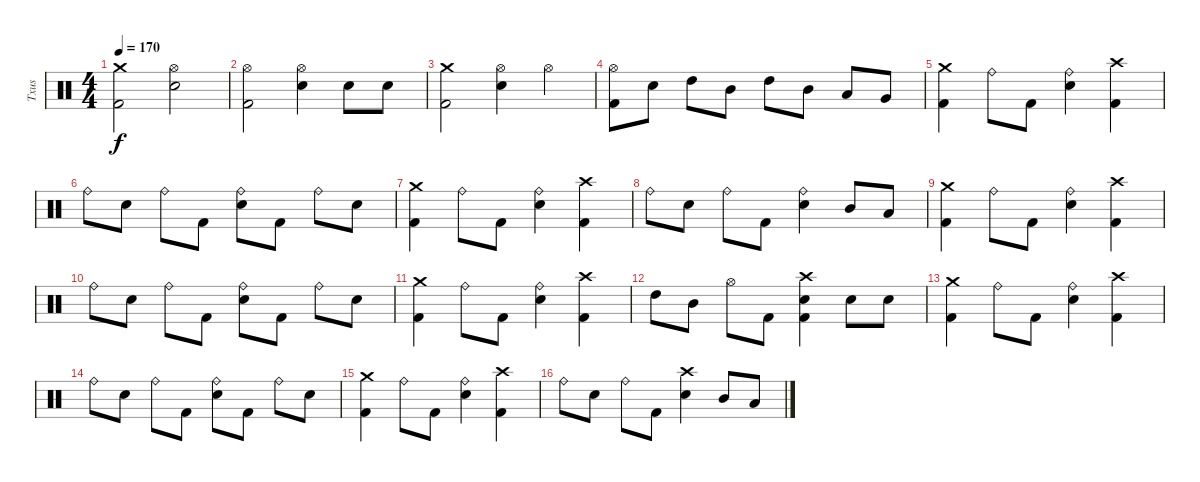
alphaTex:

\track ("Txus" "Txus") {instrument percussion}
\staff {score}
\articulation defaults
\ts (4 4)
\tempo 170
\clef neutral
\ks c
("Crash medium (hit)" "Kick (hit) 2").2{dy f} ("Hi-Hat (open)" "Snare (hit) 2").2 |
("Hi-Hat (open)" "Kick (hit) 2").2 ("Hi-Hat (open)" "Snare (hit) 2").4 "Snare (hit) 2".8 "Snare (hit) 2".8 |
("Crash medium (hit)" "Kick (hit) 2").2 ("Hi-Hat (open)" "Snare (hit) 2").4 "Hi-Hat (open)".4 |
("Hi-Hat (open)" "Kick (hit) 2").8 "Snare (hit) 2".8 "High Tom (hit)".8 "Mid Tom (hit)".8 "High Tom (hit)".8 "Mid Tom (hit)".8 "Low Tom (hit)".8 "Very Low Tom (hit)".8 |
("Crash medium (hit)" "Kick (hit) 2").4 "Ride (bell)".8 "Kick (hit) 2".8 ("Ride (bell)" "Snare (hit) 2").4 ("Crash high (hit)" "Kick (hit) 2").4 |
"Ride (bell)".8 "Snare (hit) 2".8 "Ride (bell)".8 "Kick (hit) 2".8 ("Ride (bell)" "Snare (hit) 2").8 "Kick (hit) 2".8 "Ride (bell)".8 "Snare (hit) 2".8 |
("Crash medium (hit)" "Kick (hit) 2").4 "Ride (bell)".8 "Kick (hit) 2".8 ("Ride (bell)" "Snare (hit) 2").4 ("Crash high (hit)" "Kick (hit) 2").4 |
"Ride (bell)".8 "Snare (hit) 2".8 "Ride (bell)".8 "Kick (hit) 2".8 ("Ride (bell)" "Snare (hit) 2").4 "Mid Tom (hit)".8 "Low Tom (hit)".8 |
("Crash medium (hit)" "Kick (hit) 2").4 "Ride (bell)".8 "Kick (hit) 2".8 ("Ride (bell)" "Snare (hit) 2").4 ("Crash high (hit)" "Kick (hit) 2").4 |
"Ride (bell)".8 "Snare (hit) 2".8 "Ride (bell)".8 "Kick (hit) 2".8 ("Ride (bell)" "Snare (hit) 2").8 "Kick (hit) 2".8 "Ride (bell)".8 "Snare (hit) 2".8 |
("Crash medium (hit)" "Kick (hit) 2").4 "Ride (bell)".8 "Kick (hit) 2".8 ("Ride (bell)" "Snare (hit) 2").4 ("Crash high (hit)" "Kick (hit) 2").4 |
"High Tom (hit)".8 "Mid Tom (hit)".8 "Hi-Hat (open)".8 "Kick (hit) 2".8 ("Crash high (hit)" "Snare (hit) 2" "Kick (hit) 2").4 "Snare (hit) 2".8 "Snare (hit) 2".8 |
("Crash medium (hit)" "Kick (hit) 2").4 "Ride (bell)".8 "Kick (hit) 2".8 ("Ride (bell)" "Snare (hit) 2").4 ("Crash high (hit)" "Kick (hit) 2").4 |
"Ride (bell)".8 "Snare (hit) 2".8 "Ride (bell)".8 "Kick (hit) 2".8 ("Ride (bell)" "Snare (hit) 2").8 "Kick (hit) 2".8 "Ride (bell)".8 "Snare (hit) 2".8 |
("Crash medium (hit)" "Kick (hit) 2").4 "Ride (bell)".8 "Kick (hit) 2".8 ("Ride (bell)" "Snare (hit) 2").4 ("Crash high (hit)" "Kick (hit) 2").4 |
"Ride (bell)".8 "Snare (hit) 2".8 "Ride (bell)".8 "Kick (hit) 2".8 ("Crash high (hit)" "Snare (hit) 2").4 "Mid Tom (hit)".8 "Low Tom (hit)".8
